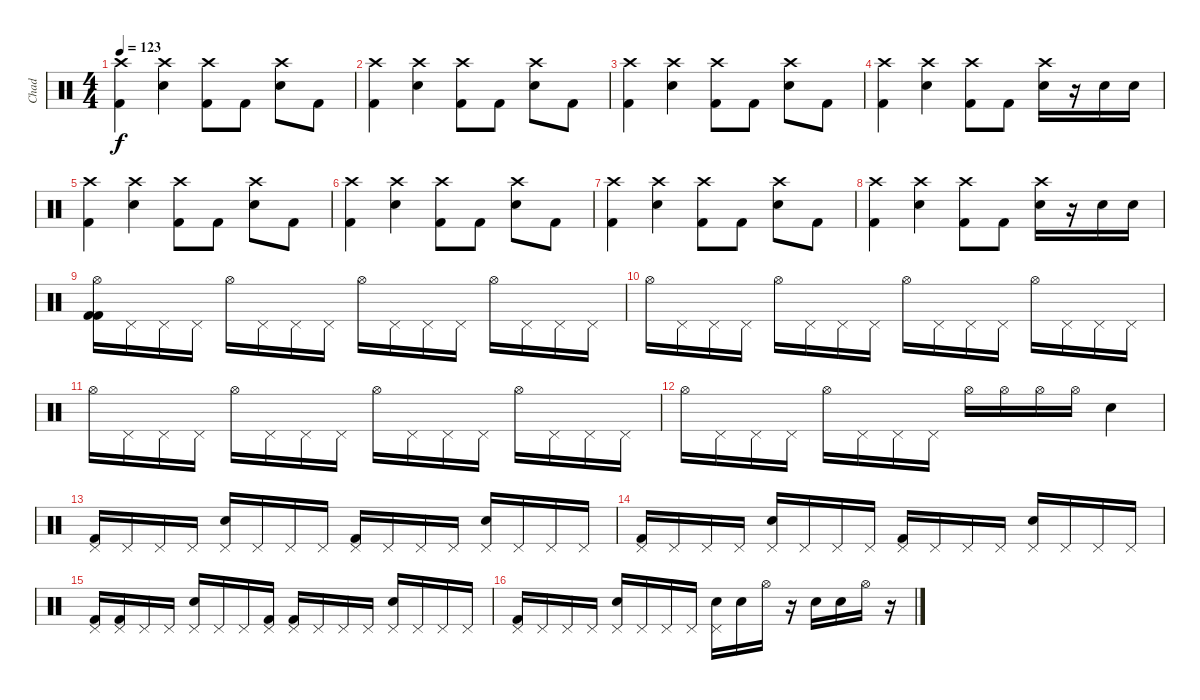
\track ("Chad" "Chad") {instrument percussion}
\staff {score}
\articulation defaults
\ts (4 4)
\tempo 123
\clef neutral
\ks c
("Crash high (hit)" "Kick (hit) 2").4{dy f} ("Crash high (hit)" "Electric Snare (hit)").4 ("Crash high (hit)" "Kick (hit) 2").8 "Kick (hit) 2".8 ("Crash high (hit)" "Electric Snare (hit)").8 "Kick (hit) 2".8 |
("Crash high (hit)" "Kick (hit) 2").4 ("Crash high (hit)" "Electric Snare (hit)").4 ("Crash high (hit)" "Kick (hit) 2").8 "Kick (hit) 2".8 ("Crash high (hit)" "Electric Snare (hit)").8 "Kick (hit) 2".8 |
("Crash high (hit)" "Kick (hit) 2").4 ("Crash high (hit)" "Electric Snare (hit)").4 ("Crash high (hit)" "Kick (hit) 2").8 "Kick (hit) 2".8 ("Crash high (hit)" "Electric Snare (hit)").8 "Kick (hit) 2".8 |
("Crash high (hit)" "Kick (hit) 2").4 ("Crash high (hit)" "Electric Snare (hit)").4 ("Crash high (hit)" "Kick (hit) 2").8 "Kick (hit) 2".8 ("Crash high (hit)" "Electric Snare (hit)").16 r.16 "Electric Snare (hit)".16 "Electric Snare (hit)".16 |
("Crash high (hit)" "Kick (hit) 2").4 ("Crash high (hit)" "Electric Snare (hit)").4 ("Crash high (hit)" "Kick (hit) 2").8 "Kick (hit) 2".8 ("Crash high (hit)" "Electric Snare (hit)").8 "Kick (hit) 2".8 |
("Crash high (hit)" "Kick (hit) 2").4 ("Crash high (hit)" "Electric Snare (hit)").4 ("Crash high (hit)" "Kick (hit) 2").8 "Kick (hit) 2".8 ("Crash high (hit)" "Electric Snare (hit)").8 "Kick (hit) 2".8 |
("Crash high (hit)" "Kick (hit) 2").4 ("Crash high (hit)" "Electric Snare (hit)").4 ("Crash high (hit)" "Kick (hit) 2").8 "Kick (hit) 2".8 ("Crash high (hit)" "Electric Snare (hit)").8 "Kick (hit) 2".8 |
("Crash high (hit)" "Kick (hit) 2").4 ("Crash high (hit)" "Electric Snare (hit)").4 ("Crash high (hit)" "Kick (hit) 2").8 "Kick (hit) 2".8 ("Crash high (hit)" "Electric Snare (hit)").16 r.16 "Electric Snare (hit)".16 "Electric Snare (hit)".16 |
("Hi-Hat (open)" "Kick (hit) 2" "Kick (hit) 2").16{volume 5} "Pedal Hi-Hat (hit)".16 "Pedal Hi-Hat (hit)".16 "Pedal Hi-Hat (hit)".16 "Hi-Hat (open)".16 "Pedal Hi-Hat (hit)".16 "Pedal Hi-Hat (hit)".16 "Pedal Hi-Hat (hit)".16 "Hi-Hat (open)".16 "Pedal Hi-Hat (hit)".16 "Pedal Hi-Hat (hit)".16 "Pedal Hi-Hat (hit)".16 "Hi-Hat (open)".16 "Pedal Hi-Hat (hit)".16 "Pedal Hi-Hat (hit)".16 "Pedal Hi-Hat (hit)".16 |
"Hi-Hat (open)".16 "Pedal Hi-Hat (hit)".16 "Pedal Hi-Hat (hit)".16 "Pedal Hi-Hat (hit)".16 "Hi-Hat (open)".16 "Pedal Hi-Hat (hit)".16 "Pedal Hi-Hat (hit)".16 "Pedal Hi-Hat (hit)".16 "Hi-Hat (open)".16 "Pedal Hi-Hat (hit)".16 "Pedal Hi-Hat (hit)".16 "Pedal Hi-Hat (hit)".16 "Hi-Hat (open)".16 "Pedal Hi-Hat (hit)".16 "Pedal Hi-Hat (hit)".16 "Pedal Hi-Hat (hit)".16 |
"Hi-Hat (open)".16 "Pedal Hi-Hat (hit)".16 "Pedal Hi-Hat (hit)".16 "Pedal Hi-Hat (hit)".16 "Hi-Hat (open)".16 "Pedal Hi-Hat (hit)".16 "Pedal Hi-Hat (hit)".16 "Pedal Hi-Hat (hit)".16 "Hi-Hat (open)".16 "Pedal Hi-Hat (hit)".16 "Pedal Hi-Hat (hit)".16 "Pedal Hi-Hat (hit)".16 "Hi-Hat (open)".16 "Pedal Hi-Hat (hit)".16 "Pedal Hi-Hat (hit)".16 "Pedal Hi-Hat (hit)".16 |
"Hi-Hat (open)".16{volume 10} "Pedal Hi-Hat (hit)".16 "Pedal Hi-Hat (hit)".16 "Pedal Hi-Hat (hit)".16 "Hi-Hat (open)".16 "Pedal Hi-Hat (hit)".16 "Pedal Hi-Hat (hit)".16 "Pedal Hi-Hat (hit)".16 "Hi-Hat (open)".16 "Hi-Hat (open)".16 "Hi-Hat (open)".16 "Hi-Hat (open)".16 "Electric Snare (hit)".4 |
("Pedal Hi-Hat (hit)" "Kick (hit) 2").16 "Pedal Hi-Hat (hit)".16 "Pedal Hi-Hat (hit)".16 "Pedal Hi-Hat (hit)".16 ("Pedal Hi-Hat (hit)" "Electric Snare (hit)").16 "Pedal Hi-Hat (hit)".16 "Pedal Hi-Hat (hit)".16 "Pedal Hi-Hat (hit)".16 ("Pedal Hi-Hat (hit)" "Kick (hit) 2").16 "Pedal Hi-Hat (hit)".16 "Pedal Hi-Hat (hit)".16 "Pedal Hi-Hat (hit)".16 ("Pedal Hi-Hat (hit)" "Electric Snare (hit)").16 "Pedal Hi-Hat (hit)".16 "Pedal Hi-Hat (hit)".16 "Pedal Hi-Hat (hit)".16 |
("Pedal Hi-Hat (hit)" "Kick (hit) 2").16 "Pedal Hi-Hat (hit)".16 "Pedal Hi-Hat (hit)".16 "Pedal Hi-Hat (hit)".16 ("Pedal Hi-Hat (hit)" "Electric Snare (hit)").16 "Pedal Hi-Hat (hit)".16 "Pedal Hi-Hat (hit)".16 "Pedal Hi-Hat (hit)".16 ("Pedal Hi-Hat (hit)" "Kick (hit) 2").16 "Pedal Hi-Hat (hit)".16 "Pedal Hi-Hat (hit)".16 "Pedal Hi-Hat (hit)".16 ("Pedal Hi-Hat (hit)" "Electric Snare (hit)").16 "Pedal Hi-Hat (hit)".16 "Pedal Hi-Hat (hit)".16 "Pedal Hi-Hat (hit)".16 |
("Pedal Hi-Hat (hit)" "Kick (hit) 2").16 ("Pedal Hi-Hat (hit)" "Kick (hit) 2").16 "Pedal Hi-Hat (hit)".16 "Pedal Hi-Hat (hit)".16 ("Pedal Hi-Hat (hit)" "Electric Snare (hit)").16 "Pedal Hi-Hat (hit)".16 "Pedal Hi-Hat (hit)".16 ("Pedal Hi-Hat (hit)" "Kick (hit) 2").16 ("Pedal Hi-Hat (hit)" "Kick (hit) 2").16 "Pedal Hi-Hat (hit)".16 "Pedal Hi-Hat (hit)".16 "Pedal Hi-Hat (hit)".16 ("Pedal Hi-Hat (hit)" "Electric Snare (hit)").16 "Pedal Hi-Hat (hit)".16 "Pedal Hi-Hat (hit)".16 "Pedal Hi-Hat (hit)".16 |
("Pedal Hi-Hat (hit)" "Kick (hit) 2").16 "Pedal Hi-Hat (hit)".16 "Pedal Hi-Hat (hit)".16 "Pedal Hi-Hat (hit)".16 ("Pedal Hi-Hat (hit)" "Electric Snare (hit)").16 "Pedal Hi-Hat (hit)".16 "Pedal Hi-Hat (hit)".16 "Pedal Hi-Hat (hit)".16 ("Pedal Hi-Hat (hit)" "Electric Snare (hit)").16 "Electric Snare (hit)".16 "Hi-Hat (open)".16 r.16 "Electric Snare (hit)".16 "Electric Snare (hit)".16 "Hi-Hat (open)".16 r.16
